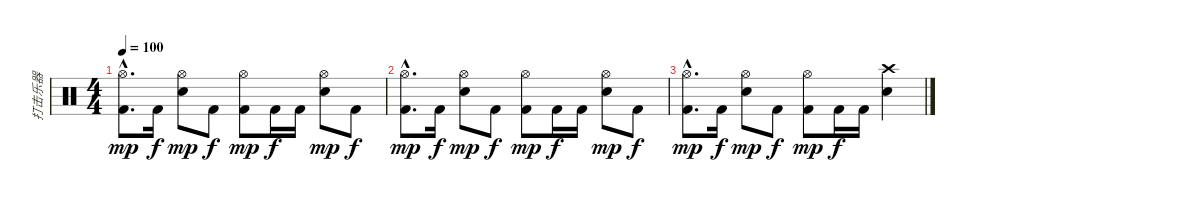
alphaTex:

\track ("打击乐器" "打击乐器") {instrument percussion}
\staff {score}
\articulation defaults
\ts (4 4)
\tempo 100
\clef neutral
\ks c
("Kick (hit) 2"{hac} "Hi-Hat (open)"{hac}).8{d dy mp} "Kick (hit) 2".16{dy f} ("Electric Snare (hit)" "Hi-Hat (open)").8{dy mp} "Kick (hit) 2".8{dy f} ("Kick (hit) 2" "Hi-Hat (open)").8{dy mp} "Kick (hit) 2".16{dy f} "Kick (hit) 2".16 ("Electric Snare (hit)" "Hi-Hat (open)").8{dy mp} "Kick (hit) 2".8{dy f} |
("Kick (hit) 2"{hac} "Hi-Hat (open)"{hac}).8{d dy mp} "Kick (hit) 2".16{dy f} ("Electric Snare (hit)" "Hi-Hat (open)").8{dy mp} "Kick (hit) 2".8{dy f} ("Kick (hit) 2" "Hi-Hat (open)").8{dy mp} "Kick (hit) 2".16{dy f} "Kick (hit) 2".16 ("Electric Snare (hit)" "Hi-Hat (open)").8{dy mp} "Kick (hit) 2".8{dy f} |
("Kick (hit) 2"{hac} "Hi-Hat (open)"{hac}).8{d dy mp} "Kick (hit) 2".16{dy f} ("Electric Snare (hit)" "Hi-Hat (open)").8{dy mp} "Kick (hit) 2".8{dy f} ("Kick (hit) 2" "Hi-Hat (open)").8{dy mp} "Kick (hit) 2".16{dy f} "Kick (hit) 2".16 ("Electric Snare (hit)" "Crash high (hit)").4
